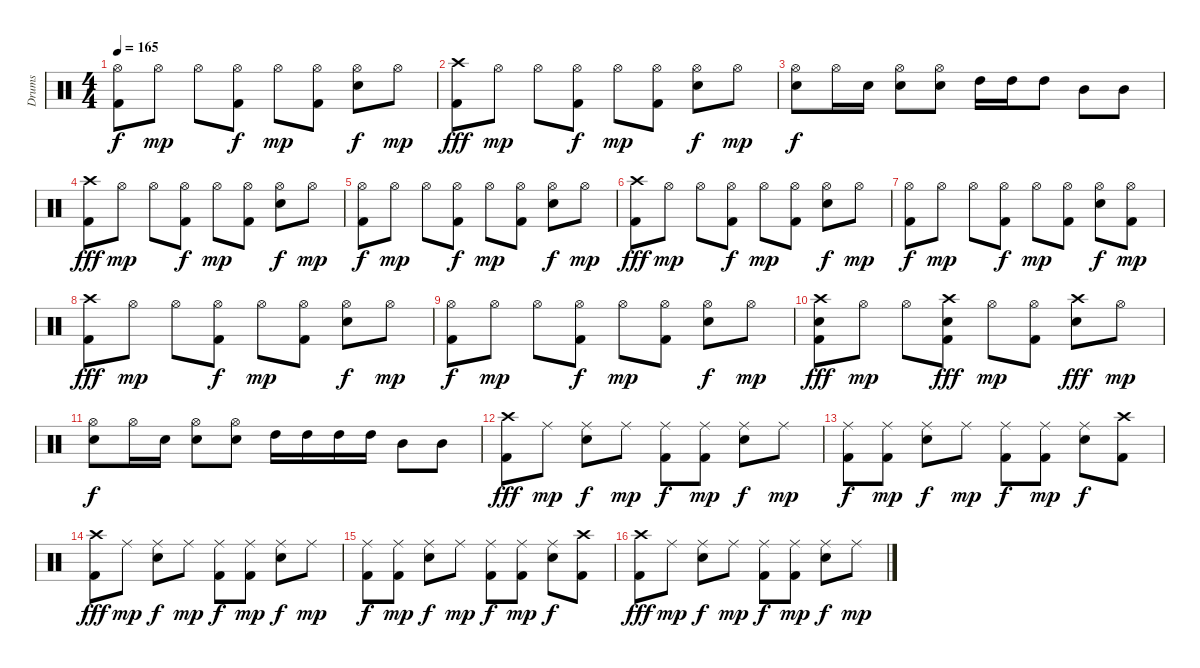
\track ("Drums" "Drums") {instrument percussion}
\staff {score}
\articulation defaults
\ts (4 4)
\tempo 165
\clef neutral
\ks c
("Hi-Hat (open)" "Kick (hit) 2").8{dy f} "Hi-Hat (open)".8{dy mp} "Hi-Hat (open)".8 ("Hi-Hat (open)" "Kick (hit) 2").8{dy f} "Hi-Hat (open)".8{dy mp} ("Hi-Hat (open)" "Kick (hit) 2").8 ("Hi-Hat (open)" "Electric Snare (hit)").8{dy f} "Hi-Hat (open)".8{dy mp} |
("Crash high (hit)" "Kick (hit) 2").8{dy fff} "Hi-Hat (open)".8{dy mp} "Hi-Hat (open)".8 ("Hi-Hat (open)" "Kick (hit) 2").8{dy f} "Hi-Hat (open)".8{dy mp} ("Hi-Hat (open)" "Kick (hit) 2").8 ("Hi-Hat (open)" "Electric Snare (hit)").8{dy f} "Hi-Hat (open)".8{dy mp} |
("Hi-Hat (open)" "Electric Snare (hit)").8{dy f} "Hi-Hat (open)".16 "Electric Snare (hit)".16 ("Hi-Hat (open)" "Electric Snare (hit)").8 ("Hi-Hat (open)" "Electric Snare (hit)").8 "High Tom (hit)".16 "High Tom (hit)".16 "High Tom (hit)".8 "Mid Tom (hit)".8 "Mid Tom (hit)".8 |
("Crash high (hit)" "Kick (hit) 2").8{dy fff} "Hi-Hat (open)".8{dy mp} "Hi-Hat (open)".8 ("Hi-Hat (open)" "Kick (hit) 2").8{dy f} "Hi-Hat (open)".8{dy mp} ("Hi-Hat (open)" "Kick (hit) 2").8 ("Hi-Hat (open)" "Electric Snare (hit)").8{dy f} "Hi-Hat (open)".8{dy mp} |
("Hi-Hat (open)" "Kick (hit) 2").8{dy f} "Hi-Hat (open)".8{dy mp} "Hi-Hat (open)".8 ("Hi-Hat (open)" "Kick (hit) 2").8{dy f} "Hi-Hat (open)".8{dy mp} ("Hi-Hat (open)" "Kick (hit) 2").8 ("Hi-Hat (open)" "Electric Snare (hit)").8{dy f} "Hi-Hat (open)".8{dy mp} |
("Crash high (hit)" "Kick (hit) 2").8{dy fff} "Hi-Hat (open)".8{dy mp} "Hi-Hat (open)".8 ("Hi-Hat (open)" "Kick (hit) 2").8{dy f} "Hi-Hat (open)".8{dy mp} ("Hi-Hat (open)" "Kick (hit) 2").8 ("Hi-Hat (open)" "Electric Snare (hit)").8{dy f} "Hi-Hat (open)".8{dy mp} |
("Hi-Hat (open)" "Kick (hit) 2").8{dy f} "Hi-Hat (open)".8{dy mp} "Hi-Hat (open)".8 ("Hi-Hat (open)" "Kick (hit) 2").8{dy f} "Hi-Hat (open)".8{dy mp} ("Hi-Hat (open)" "Kick (hit) 2").8 ("Hi-Hat (open)" "Electric Snare (hit)").8{dy f} ("Hi-Hat (open)" "Kick (hit) 2").8{dy mp} |
("Crash high (hit)" "Kick (hit) 2").8{dy fff} "Hi-Hat (open)".8{dy mp} "Hi-Hat (open)".8 ("Hi-Hat (open)" "Kick (hit) 2").8{dy f} "Hi-Hat (open)".8{dy mp} ("Hi-Hat (open)" "Kick (hit) 2").8 ("Hi-Hat (open)" "Electric Snare (hit)").8{dy f} "Hi-Hat (open)".8{dy mp} |
("Hi-Hat (open)" "Kick (hit) 2").8{dy f} "Hi-Hat (open)".8{dy mp} "Hi-Hat (open)".8 ("Hi-Hat (open)" "Kick (hit) 2").8{dy f} "Hi-Hat (open)".8{dy mp} ("Hi-Hat (open)" "Kick (hit) 2").8 ("Hi-Hat (open)" "Electric Snare (hit)").8{dy f} "Hi-Hat (open)".8{dy mp} |
("Crash high (hit)" "Electric Snare (hit)" "Kick (hit) 2").8{dy fff} "Hi-Hat (open)".8{dy mp} "Hi-Hat (open)".8 ("Crash high (hit)" "Electric Snare (hit)" "Kick (hit) 2").8{dy fff} "Hi-Hat (open)".8{dy mp} ("Hi-Hat (open)" "Kick (hit) 2").8 ("Crash high (hit)" "Electric Snare (hit)").8{dy fff} "Hi-Hat (open)".8{dy mp} |
("Hi-Hat (open)" "Electric Snare (hit)").8{dy f} "Hi-Hat (open)".16 "Electric Snare (hit)".16 ("Hi-Hat (open)" "Electric Snare (hit)").8 ("Hi-Hat (open)" "Electric Snare (hit)").8 "High Tom (hit)".16 "High Tom (hit)".16 "High Tom (hit)".16 "High Tom (hit)".16 "Mid Tom (hit)".8 "Mid Tom (hit)".8 |
("Crash high (hit)" "Kick (hit) 2").8{dy fff} "Ride (middle)".8{dy mp} ("Ride (middle)" "Electric Snare (hit)").8{dy f} "Ride (middle)".8{dy mp} ("Ride (middle)" "Kick (hit) 2").8{dy f} ("Ride (middle)" "Kick (hit) 2").8{dy mp} ("Ride (middle)" "Electric Snare (hit)").8{dy f} "Ride (middle)".8{dy mp} |
("Ride (middle)" "Kick (hit) 2").8{dy f} ("Ride (middle)" "Kick (hit) 2").8{dy mp} ("Ride (middle)" "Electric Snare (hit)").8{dy f} "Ride (middle)".8{dy mp} ("Ride (middle)" "Kick (hit) 2").8{dy f} ("Ride (middle)" "Kick (hit) 2").8{dy mp} ("Ride (middle)" "Electric Snare (hit)").8{dy f} ("Crash high (hit)" "Kick (hit) 2").8 |
("Crash high (hit)" "Kick (hit) 2").8{dy fff} "Ride (middle)".8{dy mp} ("Ride (middle)" "Electric Snare (hit)").8{dy f} "Ride (middle)".8{dy mp} ("Ride (middle)" "Kick (hit) 2").8{dy f} ("Ride (middle)" "Kick (hit) 2").8{dy mp} ("Ride (middle)" "Electric Snare (hit)").8{dy f} "Ride (middle)".8{dy mp} |
("Ride (middle)" "Kick (hit) 2").8{dy f} ("Ride (middle)" "Kick (hit) 2").8{dy mp} ("Ride (middle)" "Electric Snare (hit)").8{dy f} "Ride (middle)".8{dy mp} ("Ride (middle)" "Kick (hit) 2").8{dy f} ("Ride (middle)" "Kick (hit) 2").8{dy mp} ("Ride (middle)" "Electric Snare (hit)").8{dy f} ("Crash high (hit)" "Kick (hit) 2").8 |
("Crash high (hit)" "Kick (hit) 2").8{dy fff} "Ride (middle)".8{dy mp} ("Ride (middle)" "Electric Snare (hit)").8{dy f} "Ride (middle)".8{dy mp} ("Ride (middle)" "Kick (hit) 2").8{dy f} ("Ride (middle)" "Kick (hit) 2").8{dy mp} ("Ride (middle)" "Electric Snare (hit)").8{dy f} "Ride (middle)".8{dy mp}
